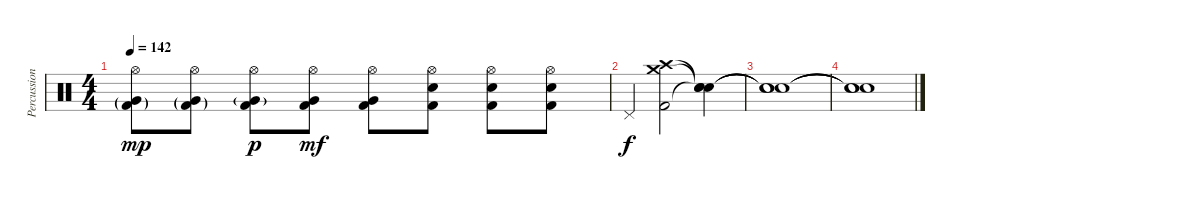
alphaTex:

\track ("Percussion" "Percussion") {instrument percussion}
\staff {score}
\articulation defaults
\ts (4 4)
\tempo 142
\clef neutral
\ks c
("Hi-Hat (open)" "Very Low Tom (hit)"{g} "Kick (hit) 2"{g}).8{dy mp} ("Hi-Hat (open)" "Very Low Tom (hit)"{g} "Kick (hit) 2"{g}).8 ("Hi-Hat (open)" "Very Low Tom (hit)"{g} "Kick (hit) 2").8{dy p} ("Hi-Hat (open)" "Very Low Tom (hit)" "Kick (hit) 2").8{dy mf} ("Hi-Hat (open)" "Very Low Tom (hit)" "Kick (hit) 2").8 ("Hi-Hat (open)" "Snare (hit) 2" "Kick (hit) 2").8 ("Hi-Hat (open)" "Snare (hit) 2" "Kick (hit) 2").8 ("Hi-Hat (open)" "Snare (hit) 2" "Kick (hit) 2").8 |
"Pedal Hi-Hat (hit)".4{dy f} ("Crash medium (hit)" "Crash high (hit)" "Kick (hit) 2").2 ("Snare (hit)"{t} "Snare (hit)"{t} "Snare (hit)"{t}).4 |
("Snare (hit)"{t} "Snare (hit)"{t} "Snare (hit)"{t}).1 |
("Snare (hit)"{t} "Snare (hit)"{t} "Snare (hit)"{t}).1
